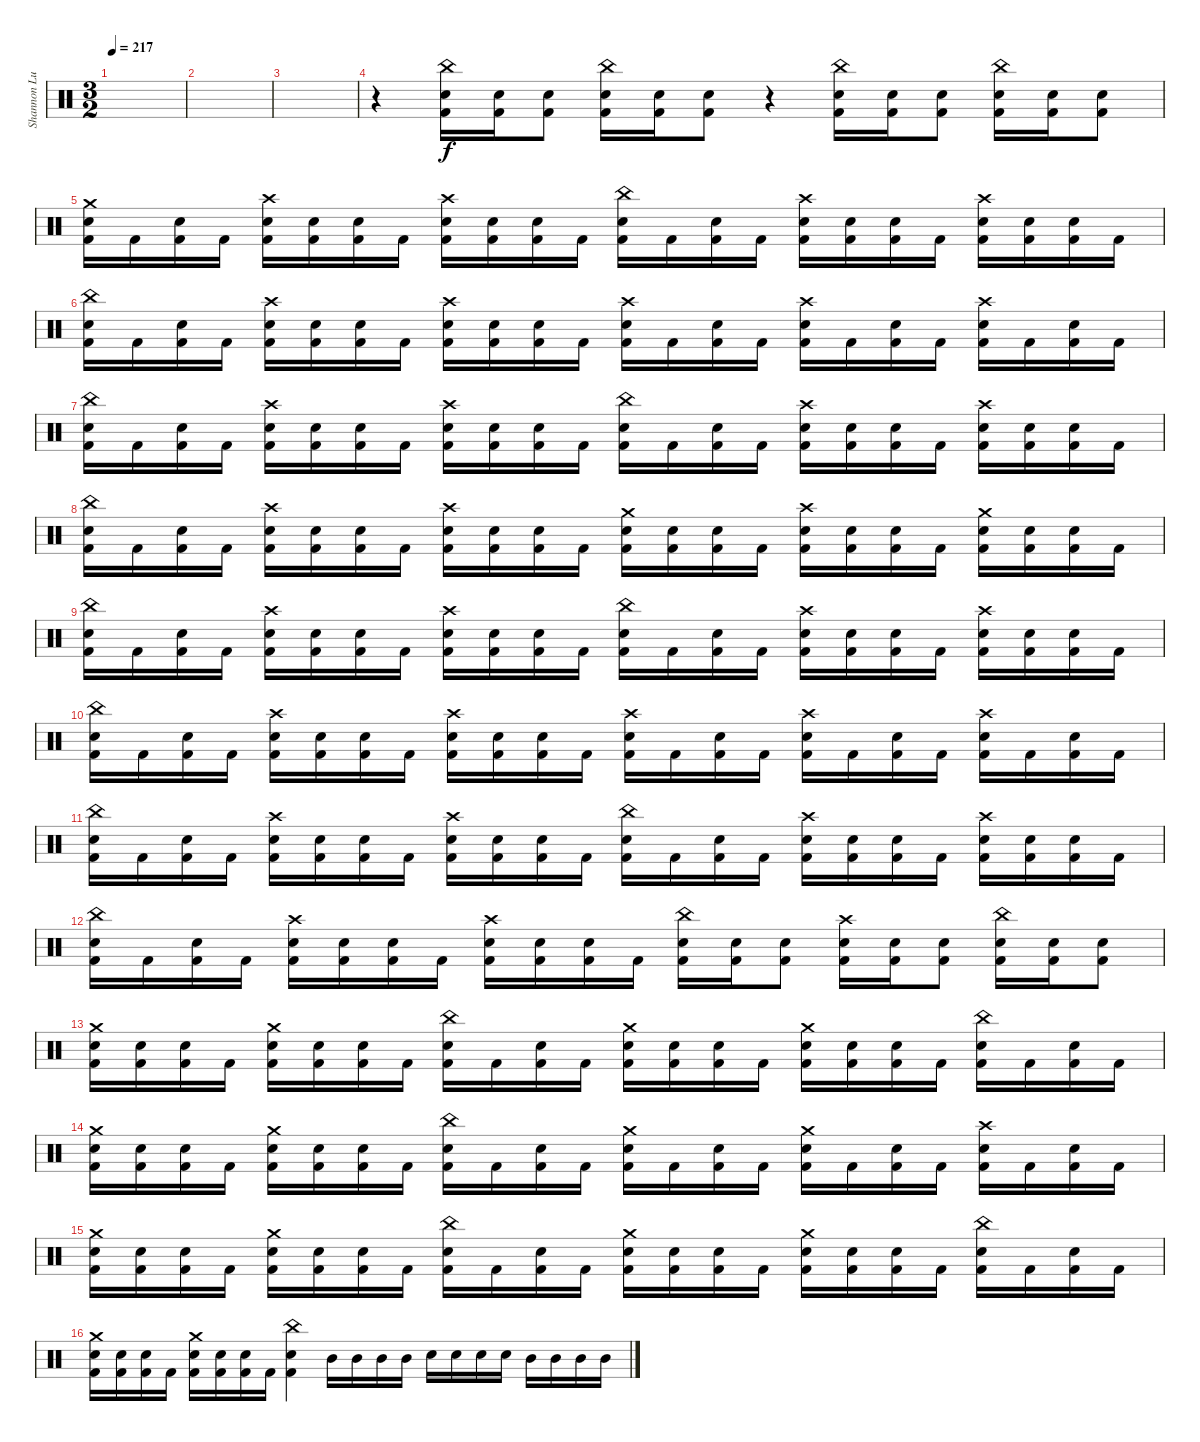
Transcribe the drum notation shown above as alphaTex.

\track ("Shannon Lucas [Drums (Since 2007)]" "Shannon Lu") {instrument percussion}
\staff {score}
\articulation defaults
\ts (3 2)
\tempo 217
\clef neutral
\ks c
|
|
|
r.4 ("China (hit)" "Snare (hit) 2" "Kick (hit) 2").16 ("Snare (hit) 2" "Kick (hit) 2").16 ("Snare (hit) 2" "Kick (hit) 2").8 ("China (hit)" "Snare (hit) 2" "Kick (hit) 2").16 ("Snare (hit) 2" "Kick (hit) 2").16 ("Snare (hit) 2" "Kick (hit) 2").8 r.4 ("China (hit)" "Snare (hit) 2" "Kick (hit) 2").16 ("Snare (hit) 2" "Kick (hit) 2").16 ("Snare (hit) 2" "Kick (hit) 2").8 ("China (hit)" "Snare (hit) 2" "Kick (hit) 2").16 ("Snare (hit) 2" "Kick (hit) 2").16 ("Snare (hit) 2" "Kick (hit) 2").8 |
("Crash medium (hit)" "Snare (hit) 2" "Kick (hit) 2").16 "Kick (hit) 2".16 ("Snare (hit) 2" "Kick (hit) 2").16 "Kick (hit) 2".16 ("Crash high (hit)" "Snare (hit) 2" "Kick (hit) 2").16 ("Snare (hit) 2" "Kick (hit) 2").16 ("Snare (hit) 2" "Kick (hit) 2").16 "Kick (hit) 2".16 ("Crash high (hit)" "Snare (hit) 2" "Kick (hit) 2").16 ("Snare (hit) 2" "Kick (hit) 2").16 ("Snare (hit) 2" "Kick (hit) 2").16 "Kick (hit) 2".16 ("China (hit)" "Snare (hit) 2" "Kick (hit) 2").16 "Kick (hit) 2".16 ("Snare (hit) 2" "Kick (hit) 2").16 "Kick (hit) 2".16 ("Crash high (hit)" "Snare (hit) 2" "Kick (hit) 2").16 ("Snare (hit) 2" "Kick (hit) 2").16 ("Snare (hit) 2" "Kick (hit) 2").16 "Kick (hit) 2".16 ("Crash high (hit)" "Snare (hit) 2" "Kick (hit) 2").16 ("Snare (hit) 2" "Kick (hit) 2").16 ("Snare (hit) 2" "Kick (hit) 2").16 "Kick (hit) 2".16 |
("China (hit)" "Snare (hit) 2" "Kick (hit) 2").16 "Kick (hit) 2".16 ("Snare (hit) 2" "Kick (hit) 2").16 "Kick (hit) 2".16 ("Crash high (hit)" "Snare (hit) 2" "Kick (hit) 2").16 ("Snare (hit) 2" "Kick (hit) 2").16 ("Snare (hit) 2" "Kick (hit) 2").16 "Kick (hit) 2".16 ("Crash high (hit)" "Snare (hit) 2" "Kick (hit) 2").16 ("Snare (hit) 2" "Kick (hit) 2").16 ("Snare (hit) 2" "Kick (hit) 2").16 "Kick (hit) 2".16 ("Crash high (hit)" "Snare (hit) 2" "Kick (hit) 2").16 "Kick (hit) 2".16 ("Snare (hit) 2" "Kick (hit) 2").16 "Kick (hit) 2".16 ("Crash high (hit)" "Snare (hit) 2" "Kick (hit) 2").16 "Kick (hit) 2".16 ("Snare (hit) 2" "Kick (hit) 2").16 "Kick (hit) 2".16 ("Crash high (hit)" "Snare (hit) 2" "Kick (hit) 2").16 "Kick (hit) 2".16 ("Snare (hit) 2" "Kick (hit) 2").16 "Kick (hit) 2".16 |
("China (hit)" "Snare (hit) 2" "Kick (hit) 2").16 "Kick (hit) 2".16 ("Snare (hit) 2" "Kick (hit) 2").16 "Kick (hit) 2".16 ("Crash high (hit)" "Snare (hit) 2" "Kick (hit) 2").16 ("Snare (hit) 2" "Kick (hit) 2").16 ("Snare (hit) 2" "Kick (hit) 2").16 "Kick (hit) 2".16 ("Crash high (hit)" "Snare (hit) 2" "Kick (hit) 2").16 ("Snare (hit) 2" "Kick (hit) 2").16 ("Snare (hit) 2" "Kick (hit) 2").16 "Kick (hit) 2".16 ("China (hit)" "Snare (hit) 2" "Kick (hit) 2").16 "Kick (hit) 2".16 ("Snare (hit) 2" "Kick (hit) 2").16 "Kick (hit) 2".16 ("Crash high (hit)" "Snare (hit) 2" "Kick (hit) 2").16 ("Snare (hit) 2" "Kick (hit) 2").16 ("Snare (hit) 2" "Kick (hit) 2").16 "Kick (hit) 2".16 ("Crash high (hit)" "Snare (hit) 2" "Kick (hit) 2").16 ("Snare (hit) 2" "Kick (hit) 2").16 ("Snare (hit) 2" "Kick (hit) 2").16 "Kick (hit) 2".16 |
("China (hit)" "Snare (hit) 2" "Kick (hit) 2").16 "Kick (hit) 2".16 ("Snare (hit) 2" "Kick (hit) 2").16 "Kick (hit) 2".16 ("Crash high (hit)" "Snare (hit) 2" "Kick (hit) 2").16 ("Snare (hit) 2" "Kick (hit) 2").16 ("Snare (hit) 2" "Kick (hit) 2").16 "Kick (hit) 2".16 ("Crash high (hit)" "Snare (hit) 2" "Kick (hit) 2").16 ("Snare (hit) 2" "Kick (hit) 2").16 ("Snare (hit) 2" "Kick (hit) 2").16 "Kick (hit) 2".16 ("Crash medium (hit)" "Snare (hit) 2" "Kick (hit) 2").16 ("Snare (hit) 2" "Kick (hit) 2").16 ("Snare (hit) 2" "Kick (hit) 2").16 "Kick (hit) 2".16 ("Crash high (hit)" "Snare (hit) 2" "Kick (hit) 2").16 ("Snare (hit) 2" "Kick (hit) 2").16 ("Snare (hit) 2" "Kick (hit) 2").16 "Kick (hit) 2".16 ("Crash medium (hit)" "Snare (hit) 2" "Kick (hit) 2").16 ("Snare (hit) 2" "Kick (hit) 2").16 ("Snare (hit) 2" "Kick (hit) 2").16 "Kick (hit) 2".16 |
("China (hit)" "Snare (hit) 2" "Kick (hit) 2").16 "Kick (hit) 2".16 ("Snare (hit) 2" "Kick (hit) 2").16 "Kick (hit) 2".16 ("Crash high (hit)" "Snare (hit) 2" "Kick (hit) 2").16 ("Snare (hit) 2" "Kick (hit) 2").16 ("Snare (hit) 2" "Kick (hit) 2").16 "Kick (hit) 2".16 ("Crash high (hit)" "Snare (hit) 2" "Kick (hit) 2").16 ("Snare (hit) 2" "Kick (hit) 2").16 ("Snare (hit) 2" "Kick (hit) 2").16 "Kick (hit) 2".16 ("China (hit)" "Snare (hit) 2" "Kick (hit) 2").16 "Kick (hit) 2".16 ("Snare (hit) 2" "Kick (hit) 2").16 "Kick (hit) 2".16 ("Crash high (hit)" "Snare (hit) 2" "Kick (hit) 2").16 ("Snare (hit) 2" "Kick (hit) 2").16 ("Snare (hit) 2" "Kick (hit) 2").16 "Kick (hit) 2".16 ("Crash high (hit)" "Snare (hit) 2" "Kick (hit) 2").16 ("Snare (hit) 2" "Kick (hit) 2").16 ("Snare (hit) 2" "Kick (hit) 2").16 "Kick (hit) 2".16 |
("China (hit)" "Snare (hit) 2" "Kick (hit) 2").16 "Kick (hit) 2".16 ("Snare (hit) 2" "Kick (hit) 2").16 "Kick (hit) 2".16 ("Crash high (hit)" "Snare (hit) 2" "Kick (hit) 2").16 ("Snare (hit) 2" "Kick (hit) 2").16 ("Snare (hit) 2" "Kick (hit) 2").16 "Kick (hit) 2".16 ("Crash high (hit)" "Snare (hit) 2" "Kick (hit) 2").16 ("Snare (hit) 2" "Kick (hit) 2").16 ("Snare (hit) 2" "Kick (hit) 2").16 "Kick (hit) 2".16 ("Crash high (hit)" "Snare (hit) 2" "Kick (hit) 2").16 "Kick (hit) 2".16 ("Snare (hit) 2" "Kick (hit) 2").16 "Kick (hit) 2".16 ("Crash high (hit)" "Snare (hit) 2" "Kick (hit) 2").16 "Kick (hit) 2".16 ("Snare (hit) 2" "Kick (hit) 2").16 "Kick (hit) 2".16 ("Crash high (hit)" "Snare (hit) 2" "Kick (hit) 2").16 "Kick (hit) 2".16 ("Snare (hit) 2" "Kick (hit) 2").16 "Kick (hit) 2".16 |
("China (hit)" "Snare (hit) 2" "Kick (hit) 2").16 "Kick (hit) 2".16 ("Snare (hit) 2" "Kick (hit) 2").16 "Kick (hit) 2".16 ("Crash high (hit)" "Snare (hit) 2" "Kick (hit) 2").16 ("Snare (hit) 2" "Kick (hit) 2").16 ("Snare (hit) 2" "Kick (hit) 2").16 "Kick (hit) 2".16 ("Crash high (hit)" "Snare (hit) 2" "Kick (hit) 2").16 ("Snare (hit) 2" "Kick (hit) 2").16 ("Snare (hit) 2" "Kick (hit) 2").16 "Kick (hit) 2".16 ("China (hit)" "Snare (hit) 2" "Kick (hit) 2").16 "Kick (hit) 2".16 ("Snare (hit) 2" "Kick (hit) 2").16 "Kick (hit) 2".16 ("Crash high (hit)" "Snare (hit) 2" "Kick (hit) 2").16 ("Snare (hit) 2" "Kick (hit) 2").16 ("Snare (hit) 2" "Kick (hit) 2").16 "Kick (hit) 2".16 ("Crash high (hit)" "Snare (hit) 2" "Kick (hit) 2").16 ("Snare (hit) 2" "Kick (hit) 2").16 ("Snare (hit) 2" "Kick (hit) 2").16 "Kick (hit) 2".16 |
("China (hit)" "Snare (hit) 2" "Kick (hit) 2").16 "Kick (hit) 2".16 ("Snare (hit) 2" "Kick (hit) 2").16 "Kick (hit) 2".16 ("Crash high (hit)" "Snare (hit) 2" "Kick (hit) 2").16 ("Snare (hit) 2" "Kick (hit) 2").16 ("Snare (hit) 2" "Kick (hit) 2").16 "Kick (hit) 2".16 ("Crash high (hit)" "Snare (hit) 2" "Kick (hit) 2").16 ("Snare (hit) 2" "Kick (hit) 2").16 ("Snare (hit) 2" "Kick (hit) 2").16 "Kick (hit) 2".16 ("China (hit)" "Snare (hit) 2" "Kick (hit) 2").16 ("Snare (hit) 2" "Kick (hit) 2").16 ("Snare (hit) 2" "Kick (hit) 2").8 ("Crash high (hit)" "Snare (hit) 2" "Kick (hit) 2").16 ("Snare (hit) 2" "Kick (hit) 2").16 ("Snare (hit) 2" "Kick (hit) 2").8 ("China (hit)" "Snare (hit) 2" "Kick (hit) 2").16 ("Snare (hit) 2" "Kick (hit) 2").16 ("Snare (hit) 2" "Kick (hit) 2").8 |
("Crash medium (hit)" "Snare (hit) 2" "Kick (hit) 2").16 ("Snare (hit) 2" "Kick (hit) 2").16 ("Snare (hit) 2" "Kick (hit) 2").16 "Kick (hit) 2".16 ("Crash medium (hit)" "Snare (hit) 2" "Kick (hit) 2").16 ("Snare (hit) 2" "Kick (hit) 2").16 ("Snare (hit) 2" "Kick (hit) 2").16 "Kick (hit) 2".16 ("China (hit)" "Snare (hit) 2" "Kick (hit) 2").16 "Kick (hit) 2".16 ("Snare (hit) 2" "Kick (hit) 2").16 "Kick (hit) 2".16 ("Crash medium (hit)" "Snare (hit) 2" "Kick (hit) 2").16 ("Snare (hit) 2" "Kick (hit) 2").16 ("Snare (hit) 2" "Kick (hit) 2").16 "Kick (hit) 2".16 ("Crash medium (hit)" "Snare (hit) 2" "Kick (hit) 2").16 ("Snare (hit) 2" "Kick (hit) 2").16 ("Snare (hit) 2" "Kick (hit) 2").16 "Kick (hit) 2".16 ("China (hit)" "Snare (hit) 2" "Kick (hit) 2").16 "Kick (hit) 2".16 ("Snare (hit) 2" "Kick (hit) 2").16 "Kick (hit) 2".16 |
("Crash medium (hit)" "Snare (hit) 2" "Kick (hit) 2").16 ("Snare (hit) 2" "Kick (hit) 2").16 ("Snare (hit) 2" "Kick (hit) 2").16 "Kick (hit) 2".16 ("Crash medium (hit)" "Snare (hit) 2" "Kick (hit) 2").16 ("Snare (hit) 2" "Kick (hit) 2").16 ("Snare (hit) 2" "Kick (hit) 2").16 "Kick (hit) 2".16 ("China (hit)" "Snare (hit) 2" "Kick (hit) 2").16 "Kick (hit) 2".16 ("Snare (hit) 2" "Kick (hit) 2").16 "Kick (hit) 2".16 ("Crash medium (hit)" "Snare (hit) 2" "Kick (hit) 2").16 "Kick (hit) 2".16 ("Snare (hit) 2" "Kick (hit) 2").16 "Kick (hit) 2".16 ("Crash medium (hit)" "Snare (hit) 2" "Kick (hit) 2").16 "Kick (hit) 2".16 ("Snare (hit) 2" "Kick (hit) 2").16 "Kick (hit) 2".16 ("Crash high (hit)" "Snare (hit) 2" "Kick (hit) 2").16 "Kick (hit) 2".16 ("Snare (hit) 2" "Kick (hit) 2").16 "Kick (hit) 2".16 |
("Crash medium (hit)" "Snare (hit) 2" "Kick (hit) 2").16 ("Snare (hit) 2" "Kick (hit) 2").16 ("Snare (hit) 2" "Kick (hit) 2").16 "Kick (hit) 2".16 ("Crash medium (hit)" "Snare (hit) 2" "Kick (hit) 2").16 ("Snare (hit) 2" "Kick (hit) 2").16 ("Snare (hit) 2" "Kick (hit) 2").16 "Kick (hit) 2".16 ("China (hit)" "Snare (hit) 2" "Kick (hit) 2").16 "Kick (hit) 2".16 ("Snare (hit) 2" "Kick (hit) 2").16 "Kick (hit) 2".16 ("Crash medium (hit)" "Snare (hit) 2" "Kick (hit) 2").16 ("Snare (hit) 2" "Kick (hit) 2").16 ("Snare (hit) 2" "Kick (hit) 2").16 "Kick (hit) 2".16 ("Crash medium (hit)" "Snare (hit) 2" "Kick (hit) 2").16 ("Snare (hit) 2" "Kick (hit) 2").16 ("Snare (hit) 2" "Kick (hit) 2").16 "Kick (hit) 2".16 ("China (hit)" "Snare (hit) 2" "Kick (hit) 2").16 "Kick (hit) 2".16 ("Snare (hit) 2" "Kick (hit) 2").16 "Kick (hit) 2".16 |
("Crash medium (hit)" "Snare (hit) 2" "Kick (hit) 2").16 ("Snare (hit) 2" "Kick (hit) 2").16 ("Snare (hit) 2" "Kick (hit) 2").16 "Kick (hit) 2".16 ("Crash medium (hit)" "Snare (hit) 2" "Kick (hit) 2").16 ("Snare (hit) 2" "Kick (hit) 2").16 ("Snare (hit) 2" "Kick (hit) 2").16 "Kick (hit) 2".16 ("China (hit)" "Snare (hit) 2" "Kick (hit) 2").4 "Mid Tom (hit)".16 "Mid Tom (hit)".16 "Mid Tom (hit)".16 "Mid Tom (hit)".16 "Snare (hit) 2".16 "Snare (hit) 2".16 "Snare (hit) 2".16 "Snare (hit) 2".16 "Mid Tom (hit)".16 "Mid Tom (hit)".16 "Mid Tom (hit)".16 "Mid Tom (hit)".16
